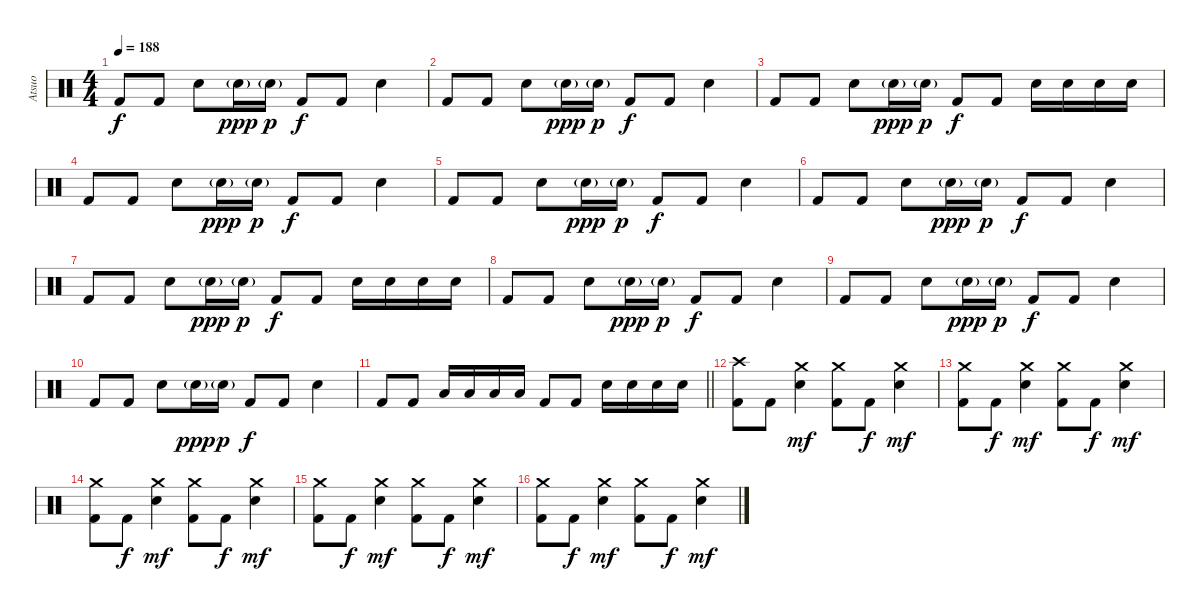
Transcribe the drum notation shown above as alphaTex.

\track ("Atsuo" "Atsuo") {instrument percussion}
\staff {score}
\articulation defaults
\ts (4 4)
\tempo 188
\clef neutral
\ks c "Kick (hit) 2".8{dy f} "Kick (hit) 2".8 "Electric Snare (hit)".8 "Electric Snare (hit)"{g}.16{dy ppp} "Electric Snare (hit)"{g}.16{dy p} "Kick (hit) 2".8{dy f} "Kick (hit) 2".8 "Electric Snare (hit)".4
|
"Kick (hit) 2".8 "Kick (hit) 2".8 "Electric Snare (hit)".8 "Electric Snare (hit)"{g}.16{dy ppp} "Electric Snare (hit)"{g}.16{dy p} "Kick (hit) 2".8{dy f} "Kick (hit) 2".8 "Electric Snare (hit)".4 |
"Kick (hit) 2".8 "Kick (hit) 2".8 "Electric Snare (hit)".8 "Electric Snare (hit)"{g}.16{dy ppp} "Electric Snare (hit)"{g}.16{dy p} "Kick (hit) 2".8{dy f} "Kick (hit) 2".8 "Electric Snare (hit)".16 "Electric Snare (hit)".16 "Electric Snare (hit)".16 "Electric Snare (hit)".16 |
"Kick (hit) 2".8 "Kick (hit) 2".8 "Electric Snare (hit)".8 "Electric Snare (hit)"{g}.16{dy ppp} "Electric Snare (hit)"{g}.16{dy p} "Kick (hit) 2".8{dy f} "Kick (hit) 2".8 "Electric Snare (hit)".4 |
"Kick (hit) 2".8 "Kick (hit) 2".8 "Electric Snare (hit)".8 "Electric Snare (hit)"{g}.16{dy ppp} "Electric Snare (hit)"{g}.16{dy p} "Kick (hit) 2".8{dy f} "Kick (hit) 2".8 "Electric Snare (hit)".4 |
"Kick (hit) 2".8 "Kick (hit) 2".8 "Electric Snare (hit)".8 "Electric Snare (hit)"{g}.16{dy ppp} "Electric Snare (hit)"{g}.16{dy p} "Kick (hit) 2".8{dy f} "Kick (hit) 2".8 "Electric Snare (hit)".4 |
"Kick (hit) 2".8 "Kick (hit) 2".8 "Electric Snare (hit)".8 "Electric Snare (hit)"{g}.16{dy ppp} "Electric Snare (hit)"{g}.16{dy p} "Kick (hit) 2".8{dy f} "Kick (hit) 2".8 "Electric Snare (hit)".16 "Electric Snare (hit)".16 "Electric Snare (hit)".16 "Electric Snare (hit)".16 |
"Kick (hit) 2".8 "Kick (hit) 2".8 "Electric Snare (hit)".8 "Electric Snare (hit)"{g}.16{dy ppp} "Electric Snare (hit)"{g}.16{dy p} "Kick (hit) 2".8{dy f} "Kick (hit) 2".8 "Electric Snare (hit)".4 |
"Kick (hit) 2".8 "Kick (hit) 2".8 "Electric Snare (hit)".8 "Electric Snare (hit)"{g}.16{dy ppp} "Electric Snare (hit)"{g}.16{dy p} "Kick (hit) 2".8{dy f} "Kick (hit) 2".8 "Electric Snare (hit)".4 |
"Kick (hit) 2".8 "Kick (hit) 2".8 "Electric Snare (hit)".8 "Electric Snare (hit)"{g}.16{dy ppp} "Electric Snare (hit)"{g}.16{dy p} "Kick (hit) 2".8{dy f} "Kick (hit) 2".8 "Electric Snare (hit)".4 |
\barLineRight lightlight "Kick (hit) 2".8 "Kick (hit) 2".8 "Low Tom (hit)".16 "Low Tom (hit)".16 "Low Tom (hit)".16 "Low Tom (hit)".16 "Kick (hit) 2".8 "Kick (hit) 2".8 "Electric Snare (hit)".16 "Electric Snare (hit)".16 "Electric Snare (hit)".16 "Electric Snare (hit)".16
|
\section ("" "")
("Crash high (hit)" "Kick (hit) 2").8 "Kick (hit) 2".8 ("Crash medium (hit)" "Electric Snare (hit)").4{dy mf} ("Crash medium (hit)" "Kick (hit) 2").8 "Kick (hit) 2".8{dy f} ("Crash medium (hit)" "Electric Snare (hit)").4{dy mf} |
("Crash medium (hit)" "Kick (hit) 2").8 "Kick (hit) 2".8{dy f} ("Crash medium (hit)" "Electric Snare (hit)").4{dy mf} ("Crash medium (hit)" "Kick (hit) 2").8 "Kick (hit) 2".8{dy f} ("Crash medium (hit)" "Electric Snare (hit)").4{dy mf} |
("Crash medium (hit)" "Kick (hit) 2").8 "Kick (hit) 2".8{dy f} ("Crash medium (hit)" "Electric Snare (hit)").4{dy mf} ("Crash medium (hit)" "Kick (hit) 2").8 "Kick (hit) 2".8{dy f} ("Crash medium (hit)" "Electric Snare (hit)").4{dy mf} |
("Crash medium (hit)" "Kick (hit) 2").8 "Kick (hit) 2".8{dy f} ("Crash medium (hit)" "Electric Snare (hit)").4{dy mf} ("Crash medium (hit)" "Kick (hit) 2").8 "Kick (hit) 2".8{dy f} ("Crash medium (hit)" "Electric Snare (hit)").4{dy mf} |
("Crash medium (hit)" "Kick (hit) 2").8 "Kick (hit) 2".8{dy f} ("Crash medium (hit)" "Electric Snare (hit)").4{dy mf} ("Crash medium (hit)" "Kick (hit) 2").8 "Kick (hit) 2".8{dy f} ("Crash medium (hit)" "Electric Snare (hit)").4{dy mf}
